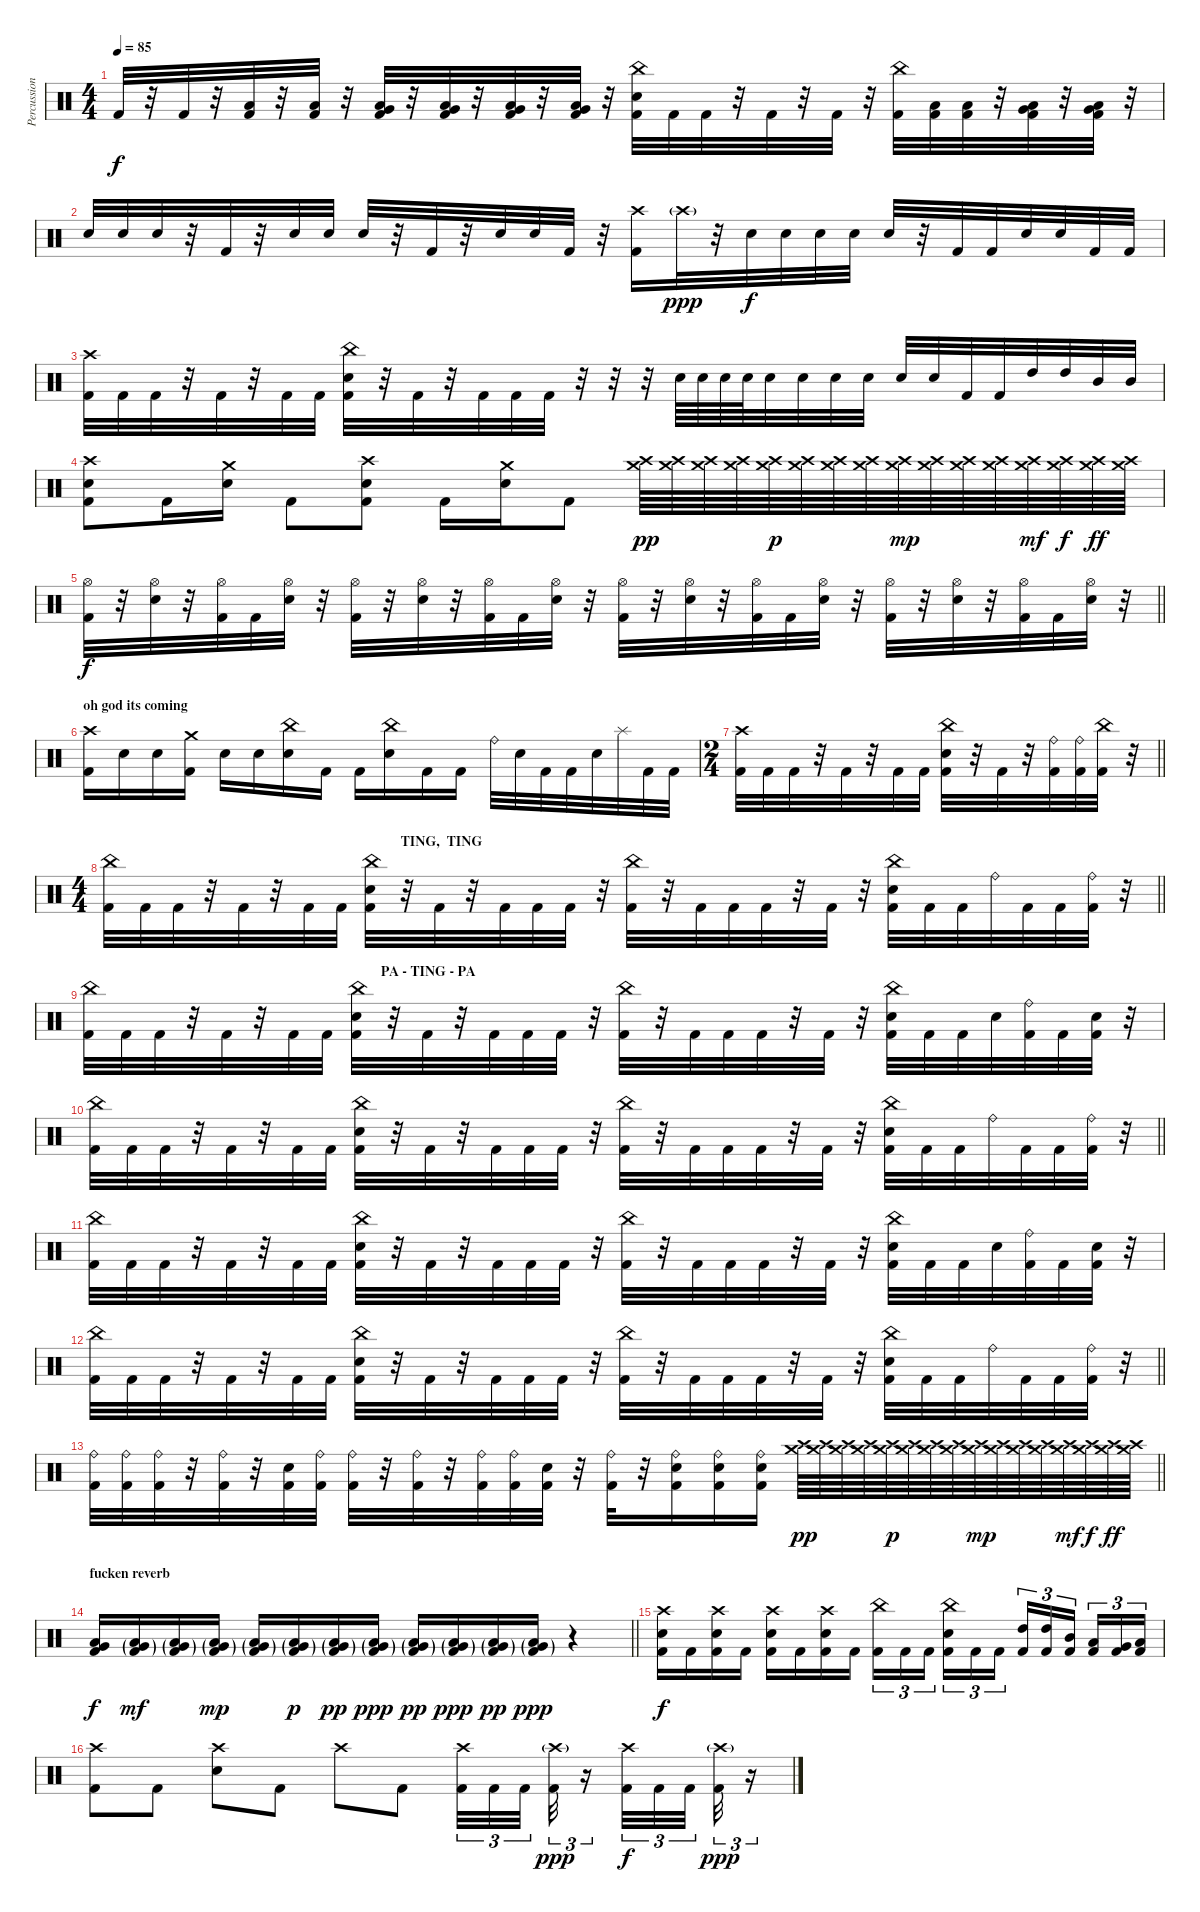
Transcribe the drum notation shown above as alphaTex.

\track ("Percussion" "Percussion") {instrument percussion}
\staff {score}
\articulation defaults
\ts (4 4)
\tempo 85
\clef neutral
\ks c "Kick (hit) 2".32{dy f}
r.32 "Kick (hit) 2".32 r.32 ("Kick (hit) 2" "Low Floor Tom (hit)").32 r.32 ("Kick (hit) 2" "Low Floor Tom (hit)").32 r.32 ("Kick (hit) 2" "Very Low Tom (hit)" "Low Floor Tom (hit)").32 r.32 ("Kick (hit) 2" "Very Low Tom (hit)" "Low Floor Tom (hit)").32 r.32 ("Kick (hit) 2" "Very Low Tom (hit)" "Low Floor Tom (hit)").32 r.32 ("Kick (hit) 2" "Very Low Tom (hit)" "Low Floor Tom (hit)").32 r.32 ("Kick (hit) 2" "Snare (hit) 2" "China (hit)").32 "Kick (hit) 2".32 "Kick (hit) 2".32 r.32 "Kick (hit) 2".32 r.32 "Kick (hit) 2".32 r.32 ("Kick (hit) 2" "China (hit)").32 ("Kick (hit) 2" "Low Floor Tom (hit)").32 ("Kick (hit) 2" "Low Floor Tom (hit)").32 r.32 ("Kick (hit) 2" "Low Floor Tom (hit)" "Very Low Tom (hit)").32 r.32 ("Kick (hit) 2" "Low Floor Tom (hit)" "Very Low Tom (hit)").32 r.32 |
"Snare (hit) 2".32 "Snare (hit) 2".32 "Snare (hit) 2".32 r.32 "Kick (hit) 2".32 r.32 "Snare (hit) 2".32 "Snare (hit) 2".32 "Snare (hit) 2".32 r.32 "Kick (hit) 2".32 r.32 "Snare (hit) 2".32 "Snare (hit) 2".32 "Kick (hit) 2".32 r.32 ("Crash high (hit)" "Kick (hit) 2").16 "Crash high (hit)"{g}.32{dy ppp} r.32 "Snare (hit) 2".32{dy f} "Snare (hit) 2".32 "Snare (hit) 2".32 "Snare (hit) 2".32 "Snare (hit) 2".32 r.32 "Kick (hit) 2".32 "Kick (hit) 2".32 "Snare (hit) 2".32 "Snare (hit) 2".32 "Kick (hit) 2".32 "Kick (hit) 2".32 |
("Kick (hit) 2" "Crash high (hit)").32 "Kick (hit) 2".32 "Kick (hit) 2".32 r.32 "Kick (hit) 2".32 r.32 "Kick (hit) 2".32 "Kick (hit) 2".32 ("Kick (hit) 2" "Snare (hit) 2" "China (hit)").32 r.32 "Kick (hit) 2".32 r.32 "Kick (hit) 2".32 "Kick (hit) 2".32 "Kick (hit) 2".32 r.32 r.32 r.32 "Snare (hit) 2".64 "Snare (hit) 2".64 "Snare (hit) 2".64 "Snare (hit) 2".64 "Snare (hit) 2".32 "Snare (hit) 2".32 "Snare (hit) 2".32 "Snare (hit) 2".32 "Snare (hit) 2".32 "Snare (hit) 2".32 "Kick (hit) 2".32 "Kick (hit) 2".32 "High Tom (hit)".32 "High Tom (hit)".32 "Mid Tom (hit)".32 "Mid Tom (hit)".32 |
("Kick (hit) 2" "Crash high (hit)" "Snare (hit) 2").8 "Kick (hit) 2".16 ("Crash medium (hit)" "Snare (hit) 2").16 "Kick (hit) 2".8 ("Kick (hit) 2" "Crash high (hit)" "Snare (hit) 2").8 "Kick (hit) 2".16 ("Crash medium (hit)" "Snare (hit) 2").16 "Kick (hit) 2".8 ("Crash high (hit)" "Crash medium (hit)").64{dy pp} ("Crash high (hit)" "Crash medium (hit)").64 ("Crash high (hit)" "Crash medium (hit)").64 ("Crash high (hit)" "Crash medium (hit)").64 ("Crash high (hit)" "Crash medium (hit)").64{dy p} ("Crash high (hit)" "Crash medium (hit)").64 ("Crash high (hit)" "Crash medium (hit)").64 ("Crash high (hit)" "Crash medium (hit)").64 ("Crash high (hit)" "Crash medium (hit)").64{dy mp} ("Crash high (hit)" "Crash medium (hit)").64 ("Crash high (hit)" "Crash medium (hit)").64 ("Crash high (hit)" "Crash medium (hit)").64 ("Crash high (hit)" "Crash medium (hit)").64{dy mf} ("Crash high (hit)" "Crash medium (hit)").64{dy f} ("Crash high (hit)" "Crash medium (hit)").64{dy ff} ("Crash high (hit)" "Crash medium (hit)").64 |
\barLineRight lightlight
("Hi-Hat (open)" "Kick (hit) 2").32{dy f} r.32 ("Hi-Hat (open)" "Snare (hit) 2").32 r.32 ("Hi-Hat (open)" "Kick (hit) 2").32 "Kick (hit) 2".32 ("Hi-Hat (open)" "Snare (hit) 2").32 r.32 ("Hi-Hat (open)" "Kick (hit) 2").32 r.32 ("Hi-Hat (open)" "Snare (hit) 2").32 r.32 ("Hi-Hat (open)" "Kick (hit) 2").32 "Kick (hit) 2".32 ("Hi-Hat (open)" "Snare (hit) 2").32 r.32 ("Hi-Hat (open)" "Kick (hit) 2").32 r.32 ("Hi-Hat (open)" "Snare (hit) 2").32 r.32 ("Hi-Hat (open)" "Kick (hit) 2").32 "Kick (hit) 2".32 ("Hi-Hat (open)" "Snare (hit) 2").32 r.32 ("Hi-Hat (open)" "Kick (hit) 2").32 r.32 ("Hi-Hat (open)" "Snare (hit) 2").32 r.32 ("Hi-Hat (open)" "Kick (hit) 2").32 "Kick (hit) 2".32 ("Hi-Hat (open)" "Snare (hit) 2").32 r.32 |
\section ("" "oh god its coming")
("Crash high (hit)" "Kick (hit) 2").16 "Snare (hit) 2".16 "Snare (hit) 2".16 ("Crash medium (hit)" "Kick (hit) 2").16 "Snare (hit) 2".16 "Snare (hit) 2".16 ("China (hit)" "Snare (hit) 2").16 "Kick (hit) 2".16 "Kick (hit) 2".16 ("China (hit)" "Snare (hit) 2").16 "Kick (hit) 2".16 "Kick (hit) 2".16 "Ride (bell)".32 "Snare (hit) 2".32 "Kick (hit) 2".32 "Kick (hit) 2".32 "Snare (hit) 2".32 "Splash (hit)".32 "Kick (hit) 2".32 "Kick (hit) 2".32 |
\ts (2 4)
\barLineRight lightlight
("Kick (hit) 2" "Crash high (hit)").32 "Kick (hit) 2".32 "Kick (hit) 2".32 r.32 "Kick (hit) 2".32 r.32 "Kick (hit) 2".32 "Kick (hit) 2".32 ("Kick (hit) 2" "Snare (hit) 2" "China (hit)").32 r.32 "Kick (hit) 2".32 r.32 ("Kick (hit) 2" "Ride (bell)").32 ("Kick (hit) 2" "Ride (bell)").32 ("Kick (hit) 2" "China (hit)").32 r.32 |
\ts (4 4)
\section ("" "                                                                                     TING,  TING")
\barLineRight lightlight
("Kick (hit) 2" "China (hit)").32 "Kick (hit) 2".32 "Kick (hit) 2".32 r.32 "Kick (hit) 2".32 r.32 "Kick (hit) 2".32 "Kick (hit) 2".32 ("Kick (hit) 2" "Snare (hit) 2" "China (hit)").32 r.32 "Kick (hit) 2".32 r.32 "Kick (hit) 2".32 "Kick (hit) 2".32 "Kick (hit) 2".32 r.32 ("Kick (hit) 2" "China (hit)").32 r.32 "Kick (hit) 2".32 "Kick (hit) 2".32 "Kick (hit) 2".32 r.32 "Kick (hit) 2".32 r.32 ("Kick (hit) 2" "Snare (hit) 2" "China (hit)").32 "Kick (hit) 2".32 "Kick (hit) 2".32 "Ride (bell)".32 "Kick (hit) 2".32 "Kick (hit) 2".32 ("Kick (hit) 2" "Ride (bell)").32 r.32 |
\section ("" "                                                                                     PA - TING - PA")
("Kick (hit) 2" "China (hit)").32 "Kick (hit) 2".32 "Kick (hit) 2".32 r.32 "Kick (hit) 2".32 r.32 "Kick (hit) 2".32 "Kick (hit) 2".32 ("Kick (hit) 2" "Snare (hit) 2" "China (hit)").32 r.32 "Kick (hit) 2".32 r.32 "Kick (hit) 2".32 "Kick (hit) 2".32 "Kick (hit) 2".32 r.32 ("Kick (hit) 2" "China (hit)").32 r.32 "Kick (hit) 2".32 "Kick (hit) 2".32 "Kick (hit) 2".32 r.32 "Kick (hit) 2".32 r.32 ("Kick (hit) 2" "Snare (hit) 2" "China (hit)").32 "Kick (hit) 2".32 "Kick (hit) 2".32 "Snare (hit) 2".32 ("Kick (hit) 2" "Ride (bell)").32 "Kick (hit) 2".32 ("Kick (hit) 2" "Snare (hit) 2").32 r.32 |
\barLineRight lightlight
("Kick (hit) 2" "China (hit)").32 "Kick (hit) 2".32 "Kick (hit) 2".32 r.32 "Kick (hit) 2".32 r.32 "Kick (hit) 2".32 "Kick (hit) 2".32 ("Kick (hit) 2" "Snare (hit) 2" "China (hit)").32 r.32 "Kick (hit) 2".32 r.32 "Kick (hit) 2".32 "Kick (hit) 2".32 "Kick (hit) 2".32 r.32 ("Kick (hit) 2" "China (hit)").32 r.32 "Kick (hit) 2".32 "Kick (hit) 2".32 "Kick (hit) 2".32 r.32 "Kick (hit) 2".32 r.32 ("Kick (hit) 2" "Snare (hit) 2" "China (hit)").32 "Kick (hit) 2".32 "Kick (hit) 2".32 "Ride (bell)".32 "Kick (hit) 2".32 "Kick (hit) 2".32 ("Kick (hit) 2" "Ride (bell)").32 r.32 |
("Kick (hit) 2" "China (hit)").32 "Kick (hit) 2".32 "Kick (hit) 2".32 r.32 "Kick (hit) 2".32 r.32 "Kick (hit) 2".32 "Kick (hit) 2".32 ("Kick (hit) 2" "Snare (hit) 2" "China (hit)").32 r.32 "Kick (hit) 2".32 r.32 "Kick (hit) 2".32 "Kick (hit) 2".32 "Kick (hit) 2".32 r.32 ("Kick (hit) 2" "China (hit)").32 r.32 "Kick (hit) 2".32 "Kick (hit) 2".32 "Kick (hit) 2".32 r.32 "Kick (hit) 2".32 r.32 ("Kick (hit) 2" "Snare (hit) 2" "China (hit)").32 "Kick (hit) 2".32 "Kick (hit) 2".32 "Snare (hit) 2".32 ("Kick (hit) 2" "Ride (bell)").32 "Kick (hit) 2".32 ("Kick (hit) 2" "Snare (hit) 2").32 r.32 |
\barLineRight lightlight
("Kick (hit) 2" "China (hit)").32 "Kick (hit) 2".32 "Kick (hit) 2".32 r.32 "Kick (hit) 2".32 r.32 "Kick (hit) 2".32 "Kick (hit) 2".32 ("Kick (hit) 2" "Snare (hit) 2" "China (hit)").32 r.32 "Kick (hit) 2".32 r.32 "Kick (hit) 2".32 "Kick (hit) 2".32 "Kick (hit) 2".32 r.32 ("Kick (hit) 2" "China (hit)").32 r.32 "Kick (hit) 2".32 "Kick (hit) 2".32 "Kick (hit) 2".32 r.32 "Kick (hit) 2".32 r.32 ("Kick (hit) 2" "Snare (hit) 2" "China (hit)").32 "Kick (hit) 2".32 "Kick (hit) 2".32 "Ride (bell)".32 "Kick (hit) 2".32 "Kick (hit) 2".32 ("Kick (hit) 2" "Ride (bell)").32 r.32 |
\barLineRight lightlight
("Kick (hit) 2" "Ride (bell)").32 ("Kick (hit) 2" "Ride (bell)").32 ("Kick (hit) 2" "Ride (bell)").32 r.32 ("Kick (hit) 2" "Ride (bell)").32 r.32 ("Kick (hit) 2" "Snare (hit) 2").32 ("Kick (hit) 2" "Ride (bell)").32 ("Kick (hit) 2" "Ride (bell)").32 r.32 ("Kick (hit) 2" "Ride (bell)").32 r.32 ("Kick (hit) 2" "Ride (bell)").32 ("Kick (hit) 2" "Ride (bell)").32 ("Kick (hit) 2" "Snare (hit) 2").32 r.32 ("Kick (hit) 2" "Ride (bell)").32 r.32 ("Kick (hit) 2" "Snare (hit) 2" "Ride (bell)").16 ("Kick (hit) 2" "Snare (hit) 2" "Ride (bell)").16 ("Kick (hit) 2" "Snare (hit) 2" "Ride (bell)").16 ("Crash high (hit)" "Crash medium (hit)").64{dy pp} ("Crash high (hit)" "Crash medium (hit)").64 ("Crash high (hit)" "Crash medium (hit)").64 ("Crash high (hit)" "Crash medium (hit)").64 ("Crash high (hit)" "Crash medium (hit)").64{dy p} ("Crash high (hit)" "Crash medium (hit)").64 ("Crash high (hit)" "Crash medium (hit)").64 ("Crash high (hit)" "Crash medium (hit)").64 ("Crash high (hit)" "Crash medium (hit)").64{dy mp} ("Crash high (hit)" "Crash medium (hit)").64 ("Crash high (hit)" "Crash medium (hit)").64 ("Crash high (hit)" "Crash medium (hit)").64 ("Crash high (hit)" "Crash medium (hit)").64{dy mf} ("Crash high (hit)" "Crash medium (hit)").64{dy f} ("Crash high (hit)" "Crash medium (hit)").64{dy ff} ("Crash high (hit)" "Crash medium (hit)").64 |
\section ("" "fucken reverb")
\barLineRight lightlight
("Kick (hit) 2" "Low Floor Tom (hit)" "Very Low Tom (hit)").16{dy f} ("Kick (hit) 2"{g} "Low Floor Tom (hit)"{g} "Very Low Tom (hit)"{g}).16{dy mf} ("Kick (hit) 2"{g} "Low Floor Tom (hit)"{g} "Very Low Tom (hit)"{g}).16 ("Kick (hit) 2"{g} "Low Floor Tom (hit)"{g} "Very Low Tom (hit)"{g}).16{dy mp} ("Kick (hit) 2"{g} "Low Floor Tom (hit)"{g} "Very Low Tom (hit)"{g}).16 ("Kick (hit) 2"{g} "Low Floor Tom (hit)"{g} "Very Low Tom (hit)"{g}).16{dy p} ("Kick (hit) 2"{g} "Low Floor Tom (hit)"{g} "Very Low Tom (hit)"{g}).16{dy pp} ("Kick (hit) 2"{g} "Low Floor Tom (hit)"{g} "Very Low Tom (hit)"{g}).16{dy ppp} ("Kick (hit) 2"{g} "Low Floor Tom (hit)"{g} "Very Low Tom (hit)"{g}).16{dy pp} ("Kick (hit) 2"{g} "Low Floor Tom (hit)"{g} "Very Low Tom (hit)"{g}).16{dy ppp} ("Kick (hit) 2"{g} "Low Floor Tom (hit)"{g} "Very Low Tom (hit)"{g}).16{dy pp} ("Kick (hit) 2"{g} "Low Floor Tom (hit)"{g} "Very Low Tom (hit)"{g}).16{dy ppp} r.4 |
("Crash high (hit)" "Snare (hit) 2" "Kick (hit) 2").16{dy f} "Kick (hit) 2".16 ("Crash high (hit)" "Snare (hit) 2" "Kick (hit) 2").16 "Kick (hit) 2".16 ("Crash high (hit)" "Snare (hit) 2" "Kick (hit) 2").16 "Kick (hit) 2".16 ("Crash high (hit)" "Snare (hit) 2" "Kick (hit) 2").16 "Kick (hit) 2".16 ("China (hit)" "Kick (hit) 2").16{tu (3 2)} "Kick (hit) 2".16{tu (3 2)} "Kick (hit) 2".16{tu (3 2) beam splitsecondary} ("China (hit)" "Snare (hit) 2" "Kick (hit) 2").16{tu (3 2)} "Kick (hit) 2".16{tu (3 2)} "Kick (hit) 2".16{tu (3 2)} ("High Tom (hit)" "Kick (hit) 2").16{tu (3 2)} ("High Tom (hit)" "Kick (hit) 2").16{tu (3 2)} ("Mid Tom (hit)" "Kick (hit) 2").16{tu (3 2) beam splitsecondary} ("Low Tom (hit)" "Kick (hit) 2").16{tu (3 2)} ("Very Low Tom (hit)" "Kick (hit) 2").16{tu (3 2)} ("Low Floor Tom (hit)" "Kick (hit) 2").16{tu (3 2)} |
("Crash high (hit)" "Kick (hit) 2").8 "Kick (hit) 2".8 ("Crash high (hit)" "Snare (hit) 2").8 "Kick (hit) 2".8 "Crash high (hit)".8 "Kick (hit) 2".8 ("Crash high (hit)" "Kick (hit) 2").32{tu (3 2)} "Kick (hit) 2".32{tu (3 2)} "Kick (hit) 2".32{tu (3 2) beam splitsecondary} ("Crash high (hit)"{g} "Kick (hit) 2").32{tu (3 2) dy ppp} r.16{tu (3 2)} ("Crash high (hit)" "Kick (hit) 2").32{tu (3 2) dy f} "Kick (hit) 2".32{tu (3 2)} "Kick (hit) 2".32{tu (3 2) beam splitsecondary} ("Crash high (hit)"{g} "Kick (hit) 2").32{tu (3 2) dy ppp} r.16{tu (3 2)}
